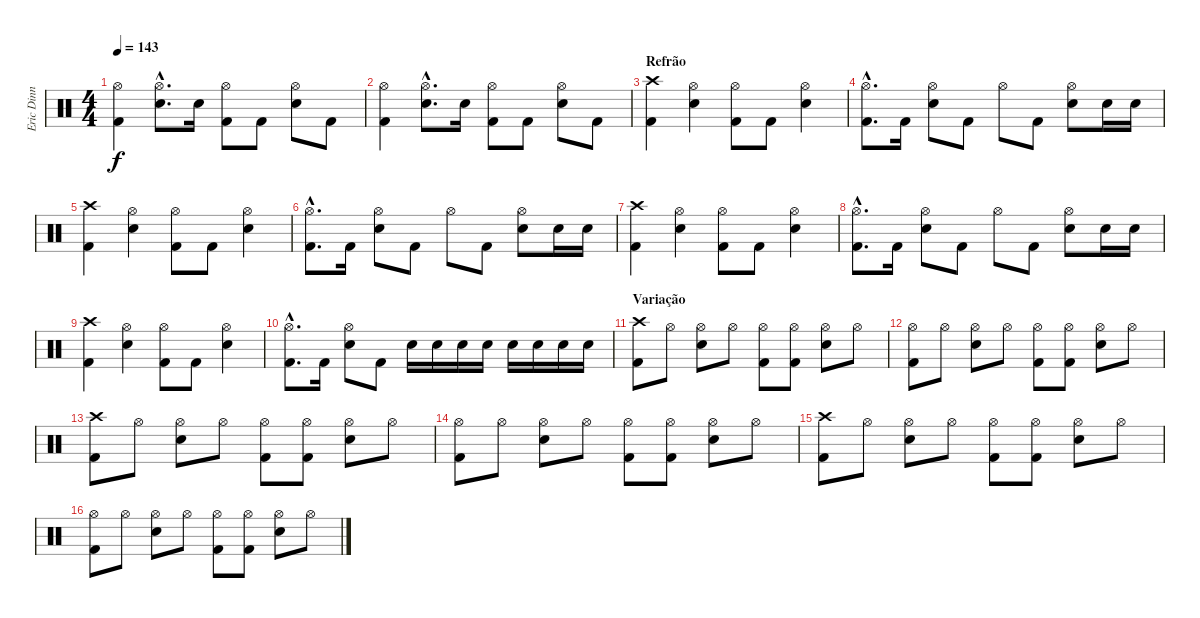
\track ("Eric Dinn" "Eric Dinn") {instrument percussion}
\staff {score}
\articulation defaults
\ts (4 4)
\tempo 143
\clef neutral
\ks c
("Hi-Hat (open)" "Kick (hit) 2").4{dy f} ("Hi-Hat (open)"{hac} "Snare (hit) 2"{hac}).8{d} "Snare (hit) 2".16 ("Hi-Hat (open)" "Kick (hit) 2").8 "Kick (hit) 2".8 ("Hi-Hat (open)" "Snare (hit) 2").8 "Kick (hit) 2".8 |
("Hi-Hat (open)" "Kick (hit) 2").4 ("Hi-Hat (open)"{hac} "Snare (hit) 2"{hac}).8{d} "Snare (hit) 2".16 ("Hi-Hat (open)" "Kick (hit) 2").8 "Kick (hit) 2".8 ("Hi-Hat (open)" "Snare (hit) 2").8 "Kick (hit) 2".8 |
\section ("" "Refrão")
("Crash high (hit)" "Kick (hit) 2").4 ("Hi-Hat (open)" "Snare (hit) 2").4 ("Hi-Hat (open)" "Kick (hit) 2").8 "Kick (hit) 2".8 ("Hi-Hat (open)" "Snare (hit) 2").4 |
("Hi-Hat (open)"{hac} "Kick (hit) 2"{hac}).8{d} "Kick (hit) 2".16 ("Hi-Hat (open)" "Snare (hit) 2").8 "Kick (hit) 2".8 "Hi-Hat (open)".8 "Kick (hit) 2".8 ("Hi-Hat (open)" "Snare (hit) 2").8 "Snare (hit) 2".16 "Snare (hit) 2".16 |
("Crash high (hit)" "Kick (hit) 2").4 ("Hi-Hat (open)" "Snare (hit) 2").4 ("Hi-Hat (open)" "Kick (hit) 2").8 "Kick (hit) 2".8 ("Hi-Hat (open)" "Snare (hit) 2").4 |
("Hi-Hat (open)"{hac} "Kick (hit) 2"{hac}).8{d} "Kick (hit) 2".16 ("Hi-Hat (open)" "Snare (hit) 2").8 "Kick (hit) 2".8 "Hi-Hat (open)".8 "Kick (hit) 2".8 ("Hi-Hat (open)" "Snare (hit) 2").8 "Snare (hit) 2".16 "Snare (hit) 2".16 |
("Crash high (hit)" "Kick (hit) 2").4 ("Hi-Hat (open)" "Snare (hit) 2").4 ("Hi-Hat (open)" "Kick (hit) 2").8 "Kick (hit) 2".8 ("Hi-Hat (open)" "Snare (hit) 2").4 |
("Hi-Hat (open)"{hac} "Kick (hit) 2"{hac}).8{d} "Kick (hit) 2".16 ("Hi-Hat (open)" "Snare (hit) 2").8 "Kick (hit) 2".8 "Hi-Hat (open)".8 "Kick (hit) 2".8 ("Hi-Hat (open)" "Snare (hit) 2").8 "Snare (hit) 2".16 "Snare (hit) 2".16 |
("Crash high (hit)" "Kick (hit) 2").4 ("Hi-Hat (open)" "Snare (hit) 2").4 ("Hi-Hat (open)" "Kick (hit) 2").8 "Kick (hit) 2".8 ("Hi-Hat (open)" "Snare (hit) 2").4 |
("Hi-Hat (open)"{hac} "Kick (hit) 2"{hac}).8{d} "Kick (hit) 2".16 ("Hi-Hat (open)" "Snare (hit) 2").8 "Kick (hit) 2".8 "Snare (hit) 2".16 "Snare (hit) 2".16 "Snare (hit) 2".16 "Snare (hit) 2".16 "Snare (hit) 2".16 "Snare (hit) 2".16 "Snare (hit) 2".16 "Snare (hit) 2".16 |
\section ("" "Variação")
("Crash high (hit)" "Kick (hit) 2").8 "Hi-Hat (open)".8 ("Hi-Hat (open)" "Snare (hit) 2").8 "Hi-Hat (open)".8 ("Hi-Hat (open)" "Kick (hit) 2").8 ("Hi-Hat (open)" "Kick (hit) 2").8 ("Hi-Hat (open)" "Snare (hit) 2").8 "Hi-Hat (open)".8 |
("Hi-Hat (open)" "Kick (hit) 2").8 "Hi-Hat (open)".8 ("Hi-Hat (open)" "Snare (hit) 2").8 "Hi-Hat (open)".8 ("Hi-Hat (open)" "Kick (hit) 2").8 ("Hi-Hat (open)" "Kick (hit) 2").8 ("Hi-Hat (open)" "Snare (hit) 2").8 "Hi-Hat (open)".8 |
("Crash high (hit)" "Kick (hit) 2").8 "Hi-Hat (open)".8 ("Hi-Hat (open)" "Snare (hit) 2").8 "Hi-Hat (open)".8 ("Hi-Hat (open)" "Kick (hit) 2").8 ("Hi-Hat (open)" "Kick (hit) 2").8 ("Hi-Hat (open)" "Snare (hit) 2").8 "Hi-Hat (open)".8 |
("Hi-Hat (open)" "Kick (hit) 2").8 "Hi-Hat (open)".8 ("Hi-Hat (open)" "Snare (hit) 2").8 "Hi-Hat (open)".8 ("Hi-Hat (open)" "Kick (hit) 2").8 ("Hi-Hat (open)" "Kick (hit) 2").8 ("Hi-Hat (open)" "Snare (hit) 2").8 "Hi-Hat (open)".8 |
("Crash high (hit)" "Kick (hit) 2").8 "Hi-Hat (open)".8 ("Hi-Hat (open)" "Snare (hit) 2").8 "Hi-Hat (open)".8 ("Hi-Hat (open)" "Kick (hit) 2").8 ("Hi-Hat (open)" "Kick (hit) 2").8 ("Hi-Hat (open)" "Snare (hit) 2").8 "Hi-Hat (open)".8 |
("Hi-Hat (open)" "Kick (hit) 2").8 "Hi-Hat (open)".8 ("Hi-Hat (open)" "Snare (hit) 2").8 "Hi-Hat (open)".8 ("Hi-Hat (open)" "Kick (hit) 2").8 ("Hi-Hat (open)" "Kick (hit) 2").8 ("Hi-Hat (open)" "Snare (hit) 2").8 "Hi-Hat (open)".8
